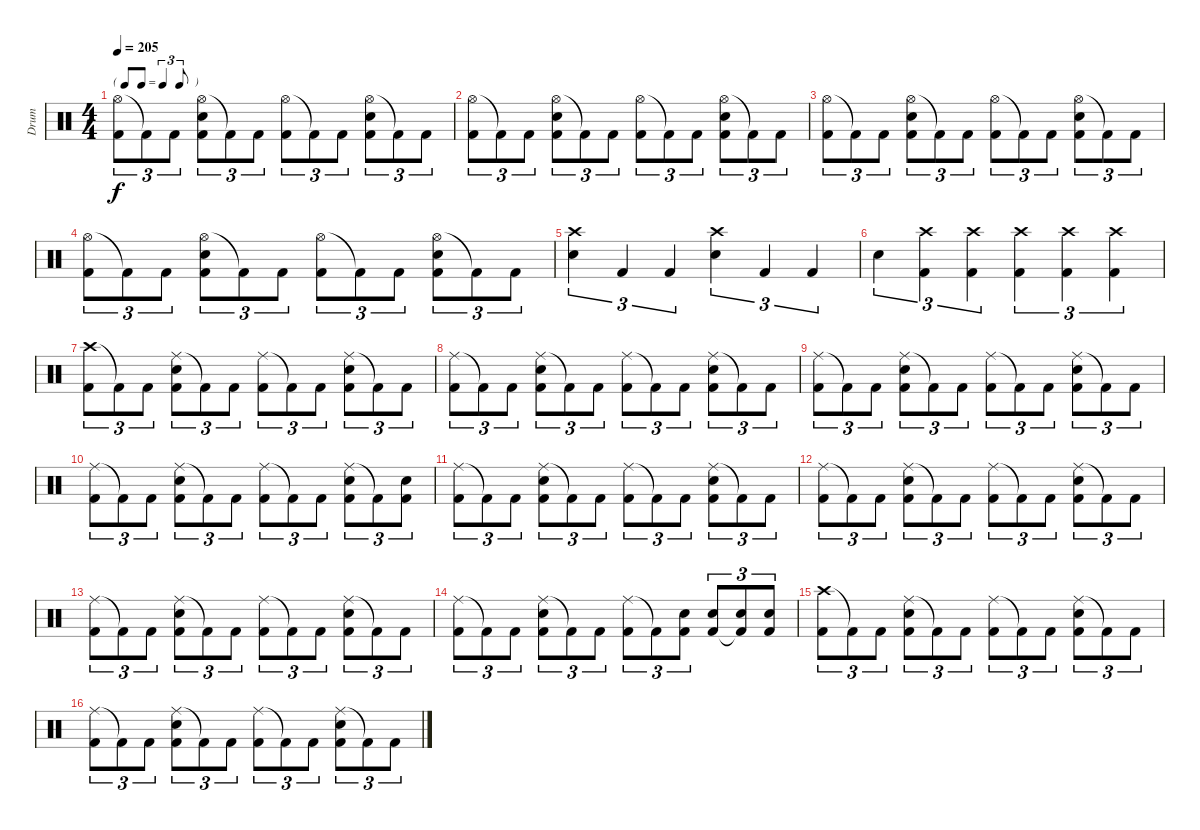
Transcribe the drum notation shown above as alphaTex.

\track ("Drum" "Drum") {instrument percussion}
\staff {score}
\articulation defaults
\ts (4 4)
\tf triplet8th
\tempo 205
\clef neutral
\ks c
("Hi-Hat (open)" "Kick (hit) 2").8{tu (3 2) dy f} "Kick (hit) 2"{t}.8{tu (3 2)} "Kick (hit) 2".8{tu (3 2)} ("Hi-Hat (open)" "Snare (hit) 2" "Kick (hit) 2").8{tu (3 2)} "Kick (hit) 2"{t}.8{tu (3 2)} "Kick (hit) 2".8{tu (3 2)} ("Hi-Hat (open)" "Kick (hit) 2").8{tu (3 2)} "Kick (hit) 2"{t}.8{tu (3 2)} "Kick (hit) 2".8{tu (3 2)} ("Hi-Hat (open)" "Snare (hit) 2" "Kick (hit) 2").8{tu (3 2)} "Kick (hit) 2"{t}.8{tu (3 2)} "Kick (hit) 2".8{tu (3 2)} |
("Hi-Hat (open)" "Kick (hit) 2").8{tu (3 2)} "Kick (hit) 2"{t}.8{tu (3 2)} "Kick (hit) 2".8{tu (3 2)} ("Hi-Hat (open)" "Snare (hit) 2" "Kick (hit) 2").8{tu (3 2)} "Kick (hit) 2"{t}.8{tu (3 2)} "Kick (hit) 2".8{tu (3 2)} ("Hi-Hat (open)" "Kick (hit) 2").8{tu (3 2)} "Kick (hit) 2"{t}.8{tu (3 2)} "Kick (hit) 2".8{tu (3 2)} ("Hi-Hat (open)" "Snare (hit) 2" "Kick (hit) 2").8{tu (3 2)} "Kick (hit) 2"{t}.8{tu (3 2)} "Kick (hit) 2".8{tu (3 2)} |
("Hi-Hat (open)" "Kick (hit) 2").8{tu (3 2)} "Kick (hit) 2"{t}.8{tu (3 2)} "Kick (hit) 2".8{tu (3 2)} ("Hi-Hat (open)" "Snare (hit) 2" "Kick (hit) 2").8{tu (3 2)} "Kick (hit) 2"{t}.8{tu (3 2)} "Kick (hit) 2".8{tu (3 2)} ("Hi-Hat (open)" "Kick (hit) 2").8{tu (3 2)} "Kick (hit) 2"{t}.8{tu (3 2)} "Kick (hit) 2".8{tu (3 2)} ("Hi-Hat (open)" "Snare (hit) 2" "Kick (hit) 2").8{tu (3 2)} "Kick (hit) 2"{t}.8{tu (3 2)} "Kick (hit) 2".8{tu (3 2)} |
("Hi-Hat (open)" "Kick (hit) 2").8{tu (3 2)} "Kick (hit) 2"{t}.8{tu (3 2)} "Kick (hit) 2".8{tu (3 2)} ("Hi-Hat (open)" "Snare (hit) 2" "Kick (hit) 2").8{tu (3 2)} "Kick (hit) 2"{t}.8{tu (3 2)} "Kick (hit) 2".8{tu (3 2)} ("Hi-Hat (open)" "Kick (hit) 2").8{tu (3 2)} "Kick (hit) 2"{t}.8{tu (3 2)} "Kick (hit) 2".8{tu (3 2)} ("Hi-Hat (open)" "Snare (hit) 2" "Kick (hit) 2").8{tu (3 2)} "Kick (hit) 2"{t}.8{tu (3 2)} "Kick (hit) 2".8{tu (3 2)} |
("Crash high (hit)" "Snare (hit) 2").4{tu (3 2)} "Kick (hit) 2".4{tu (3 2)} "Kick (hit) 2".4{tu (3 2)} ("Crash high (hit)" "Snare (hit) 2").4{tu (3 2)} "Kick (hit) 2".4{tu (3 2)} "Kick (hit) 2".4{tu (3 2)} |
"Snare (hit) 2".4{tu (3 2)} ("Crash high (hit)" "Kick (hit) 2").4{tu (3 2)} ("Crash high (hit)" "Kick (hit) 2").4{tu (3 2)} ("Crash high (hit)" "Kick (hit) 2").4{tu (3 2)} ("Crash high (hit)" "Kick (hit) 2").4{tu (3 2)} ("Crash high (hit)" "Kick (hit) 2").4{tu (3 2)} |
("Crash high (hit)" "Kick (hit) 2").8{tu (3 2)} "Kick (hit) 2"{t}.8{tu (3 2)} "Kick (hit) 2".8{tu (3 2)} ("Ride (middle)" "Snare (hit) 2" "Kick (hit) 2").8{tu (3 2)} "Kick (hit) 2"{t}.8{tu (3 2)} "Kick (hit) 2".8{tu (3 2)} ("Ride (middle)" "Kick (hit) 2").8{tu (3 2)} "Kick (hit) 2"{t}.8{tu (3 2)} "Kick (hit) 2".8{tu (3 2)} ("Ride (middle)" "Snare (hit) 2" "Kick (hit) 2").8{tu (3 2)} "Kick (hit) 2"{t}.8{tu (3 2)} "Kick (hit) 2".8{tu (3 2)} |
("Ride (middle)" "Kick (hit) 2").8{tu (3 2)} "Kick (hit) 2"{t}.8{tu (3 2)} "Kick (hit) 2".8{tu (3 2)} ("Ride (middle)" "Snare (hit) 2" "Kick (hit) 2").8{tu (3 2)} "Kick (hit) 2"{t}.8{tu (3 2)} "Kick (hit) 2".8{tu (3 2)} ("Ride (middle)" "Kick (hit) 2").8{tu (3 2)} "Kick (hit) 2"{t}.8{tu (3 2)} "Kick (hit) 2".8{tu (3 2)} ("Ride (middle)" "Snare (hit) 2" "Kick (hit) 2").8{tu (3 2)} "Kick (hit) 2"{t}.8{tu (3 2)} "Kick (hit) 2".8{tu (3 2)} |
("Ride (middle)" "Kick (hit) 2").8{tu (3 2)} "Kick (hit) 2"{t}.8{tu (3 2)} "Kick (hit) 2".8{tu (3 2)} ("Ride (middle)" "Snare (hit) 2" "Kick (hit) 2").8{tu (3 2)} "Kick (hit) 2"{t}.8{tu (3 2)} "Kick (hit) 2".8{tu (3 2)} ("Ride (middle)" "Kick (hit) 2").8{tu (3 2)} "Kick (hit) 2"{t}.8{tu (3 2)} "Kick (hit) 2".8{tu (3 2)} ("Ride (middle)" "Snare (hit) 2" "Kick (hit) 2").8{tu (3 2)} "Kick (hit) 2"{t}.8{tu (3 2)} "Kick (hit) 2".8{tu (3 2)} |
("Ride (middle)" "Kick (hit) 2").8{tu (3 2)} "Kick (hit) 2"{t}.8{tu (3 2)} "Kick (hit) 2".8{tu (3 2)} ("Ride (middle)" "Snare (hit) 2" "Kick (hit) 2").8{tu (3 2)} "Kick (hit) 2"{t}.8{tu (3 2)} "Kick (hit) 2".8{tu (3 2)} ("Ride (middle)" "Kick (hit) 2").8{tu (3 2)} "Kick (hit) 2"{t}.8{tu (3 2)} "Kick (hit) 2".8{tu (3 2)} ("Ride (middle)" "Snare (hit) 2" "Kick (hit) 2").8{tu (3 2)} "Kick (hit) 2"{t}.8{tu (3 2)} ("Snare (hit) 2" "Kick (hit) 2").8{tu (3 2)} |
("Ride (middle)" "Kick (hit) 2").8{tu (3 2)} "Kick (hit) 2"{t}.8{tu (3 2)} "Kick (hit) 2".8{tu (3 2)} ("Ride (middle)" "Snare (hit) 2" "Kick (hit) 2").8{tu (3 2)} "Kick (hit) 2"{t}.8{tu (3 2)} "Kick (hit) 2".8{tu (3 2)} ("Ride (middle)" "Kick (hit) 2").8{tu (3 2)} "Kick (hit) 2"{t}.8{tu (3 2)} "Kick (hit) 2".8{tu (3 2)} ("Ride (middle)" "Snare (hit) 2" "Kick (hit) 2").8{tu (3 2)} "Kick (hit) 2"{t}.8{tu (3 2)} "Kick (hit) 2".8{tu (3 2)} |
("Ride (middle)" "Kick (hit) 2").8{tu (3 2)} "Kick (hit) 2"{t}.8{tu (3 2)} "Kick (hit) 2".8{tu (3 2)} ("Ride (middle)" "Snare (hit) 2" "Kick (hit) 2").8{tu (3 2)} "Kick (hit) 2"{t}.8{tu (3 2)} "Kick (hit) 2".8{tu (3 2)} ("Ride (middle)" "Kick (hit) 2").8{tu (3 2)} "Kick (hit) 2"{t}.8{tu (3 2)} "Kick (hit) 2".8{tu (3 2)} ("Ride (middle)" "Snare (hit) 2" "Kick (hit) 2").8{tu (3 2)} "Kick (hit) 2"{t}.8{tu (3 2)} "Kick (hit) 2".8{tu (3 2)} |
("Ride (middle)" "Kick (hit) 2").8{tu (3 2)} "Kick (hit) 2"{t}.8{tu (3 2)} "Kick (hit) 2".8{tu (3 2)} ("Ride (middle)" "Snare (hit) 2" "Kick (hit) 2").8{tu (3 2)} "Kick (hit) 2"{t}.8{tu (3 2)} "Kick (hit) 2".8{tu (3 2)} ("Ride (middle)" "Kick (hit) 2").8{tu (3 2)} "Kick (hit) 2"{t}.8{tu (3 2)} "Kick (hit) 2".8{tu (3 2)} ("Ride (middle)" "Snare (hit) 2" "Kick (hit) 2").8{tu (3 2)} "Kick (hit) 2"{t}.8{tu (3 2)} "Kick (hit) 2".8{tu (3 2)} |
("Ride (middle)" "Kick (hit) 2").8{tu (3 2)} "Kick (hit) 2"{t}.8{tu (3 2)} "Kick (hit) 2".8{tu (3 2)} ("Ride (middle)" "Snare (hit) 2" "Kick (hit) 2").8{tu (3 2)} "Kick (hit) 2"{t}.8{tu (3 2)} "Kick (hit) 2".8{tu (3 2)} ("Ride (middle)" "Kick (hit) 2").8{tu (3 2)} "Kick (hit) 2"{t}.8{tu (3 2)} ("Snare (hit) 2" "Kick (hit) 2").8{tu (3 2)} ("Snare (hit) 2" "Kick (hit) 2").8{tu (3 2)} ("Snare (hit) 2" "Kick (hit) 2"{t}).8{tu (3 2)} ("Snare (hit) 2" "Kick (hit) 2").8{tu (3 2)} |
("Crash high (hit)" "Kick (hit) 2").8{tu (3 2)} "Kick (hit) 2"{t}.8{tu (3 2)} "Kick (hit) 2".8{tu (3 2)} ("Ride (middle)" "Snare (hit) 2" "Kick (hit) 2").8{tu (3 2)} "Kick (hit) 2"{t}.8{tu (3 2)} "Kick (hit) 2".8{tu (3 2)} ("Ride (middle)" "Kick (hit) 2").8{tu (3 2)} "Kick (hit) 2"{t}.8{tu (3 2)} "Kick (hit) 2".8{tu (3 2)} ("Ride (middle)" "Snare (hit) 2" "Kick (hit) 2").8{tu (3 2)} "Kick (hit) 2"{t}.8{tu (3 2)} "Kick (hit) 2".8{tu (3 2)} |
("Ride (middle)" "Kick (hit) 2").8{tu (3 2)} "Kick (hit) 2"{t}.8{tu (3 2)} "Kick (hit) 2".8{tu (3 2)} ("Ride (middle)" "Snare (hit) 2" "Kick (hit) 2").8{tu (3 2)} "Kick (hit) 2"{t}.8{tu (3 2)} "Kick (hit) 2".8{tu (3 2)} ("Ride (middle)" "Kick (hit) 2").8{tu (3 2)} "Kick (hit) 2"{t}.8{tu (3 2)} "Kick (hit) 2".8{tu (3 2)} ("Ride (middle)" "Snare (hit) 2" "Kick (hit) 2").8{tu (3 2)} "Kick (hit) 2"{t}.8{tu (3 2)} "Kick (hit) 2".8{tu (3 2)}
